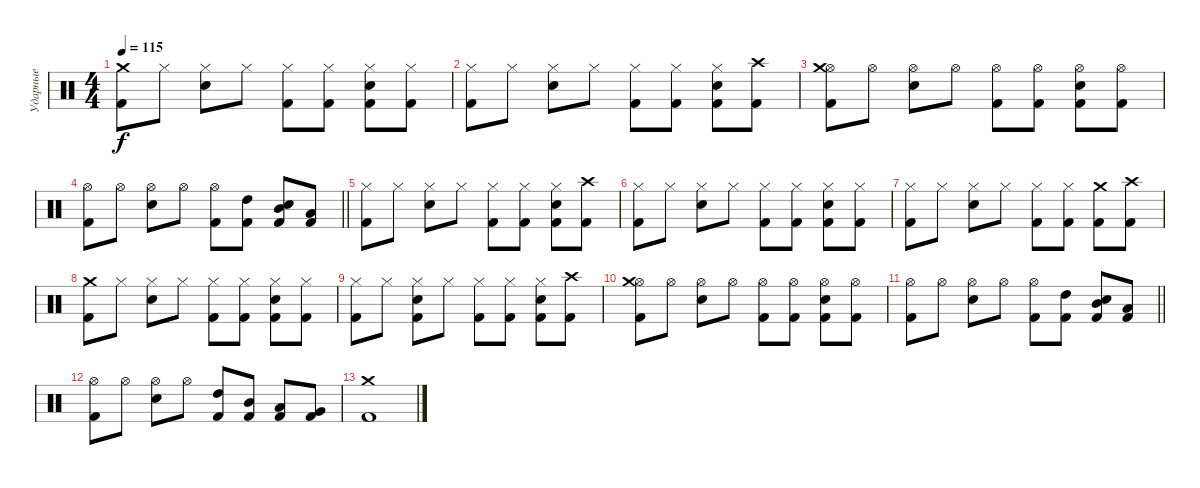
\track ("Ударные" "Ударные") {instrument percussion}
\staff {score}
\articulation defaults
\ts (4 4)
\tempo 115
\clef neutral
\ks c
("Kick (hit) 2" "Crash medium (hit)").8{dy f} "Hi-Hat (closed)".8 ("Snare (hit) 2" "Hi-Hat (closed)").8 "Hi-Hat (closed)".8 ("Kick (hit) 2" "Hi-Hat (closed)").8 ("Kick (hit) 2" "Hi-Hat (closed)").8 ("Kick (hit) 2" "Snare (hit) 2" "Hi-Hat (closed)").8 ("Kick (hit) 2" "Hi-Hat (closed)").8 |
("Kick (hit) 2" "Hi-Hat (closed)").8 "Hi-Hat (closed)".8 ("Snare (hit) 2" "Hi-Hat (closed)").8 "Hi-Hat (closed)".8 ("Kick (hit) 2" "Hi-Hat (closed)").8 ("Kick (hit) 2" "Hi-Hat (closed)").8 ("Kick (hit) 2" "Snare (hit) 2" "Hi-Hat (closed)").8 ("Kick (hit) 2" "Crash high (hit)").8 |
("Kick (hit) 2" "Hi-Hat (open)" "Crash medium (hit)").8 "Hi-Hat (open)".8 ("Snare (hit) 2" "Hi-Hat (open)").8 "Hi-Hat (open)".8 ("Kick (hit) 2" "Hi-Hat (open)").8 ("Kick (hit) 2" "Hi-Hat (open)").8 ("Kick (hit) 2" "Snare (hit) 2" "Hi-Hat (open)").8 ("Kick (hit) 2" "Hi-Hat (open)").8 |
\barLineRight lightlight
("Kick (hit) 2" "Hi-Hat (open)").8 "Hi-Hat (open)".8 ("Snare (hit) 2" "Hi-Hat (open)").8 "Hi-Hat (open)".8 ("Kick (hit) 2" "Hi-Hat (open)").8 ("Kick (hit) 2" "High Tom (hit)").8 ("Kick (hit) 2" "Snare (hit) 2" "Mid Tom (hit)").8 ("Kick (hit) 2" "Low Tom (hit)").8 |
("Kick (hit) 2" "Hi-Hat (closed)").8 "Hi-Hat (closed)".8 ("Snare (hit) 2" "Hi-Hat (closed)").8 "Hi-Hat (closed)".8 ("Kick (hit) 2" "Hi-Hat (closed)").8 ("Kick (hit) 2" "Hi-Hat (closed)").8 ("Kick (hit) 2" "Snare (hit) 2" "Hi-Hat (closed)").8 ("Kick (hit) 2" "Crash high (hit)").8 |
("Kick (hit) 2" "Hi-Hat (closed)").8 "Hi-Hat (closed)".8 ("Snare (hit) 2" "Hi-Hat (closed)").8 "Hi-Hat (closed)".8 ("Kick (hit) 2" "Hi-Hat (closed)").8 ("Kick (hit) 2" "Hi-Hat (closed)").8 ("Kick (hit) 2" "Snare (hit) 2" "Hi-Hat (closed)").8 ("Kick (hit) 2" "Hi-Hat (closed)").8 |
("Kick (hit) 2" "Hi-Hat (closed)").8 "Hi-Hat (closed)".8 ("Snare (hit) 2" "Hi-Hat (closed)").8 "Hi-Hat (closed)".8 ("Kick (hit) 2" "Hi-Hat (closed)").8 ("Kick (hit) 2" "Hi-Hat (closed)").8 ("Kick (hit) 2" "Crash medium (hit)").8 ("Kick (hit) 2" "Crash high (hit)").8 |
("Kick (hit) 2" "Crash medium (hit)").8 "Hi-Hat (closed)".8 ("Snare (hit) 2" "Hi-Hat (closed)").8 "Hi-Hat (closed)".8 ("Kick (hit) 2" "Hi-Hat (closed)").8 ("Kick (hit) 2" "Hi-Hat (closed)").8 ("Kick (hit) 2" "Snare (hit) 2" "Hi-Hat (closed)").8 ("Kick (hit) 2" "Hi-Hat (closed)").8 |
("Kick (hit) 2" "Hi-Hat (closed)").8 "Hi-Hat (closed)".8 ("Kick (hit) 2" "Snare (hit) 2" "Hi-Hat (closed)").8 "Hi-Hat (closed)".8 ("Kick (hit) 2" "Hi-Hat (closed)").8 ("Kick (hit) 2" "Hi-Hat (closed)").8 ("Kick (hit) 2" "Snare (hit) 2" "Hi-Hat (closed)").8 ("Kick (hit) 2" "Crash high (hit)").8 |
("Kick (hit) 2" "Hi-Hat (open)" "Crash medium (hit)").8 "Hi-Hat (open)".8 ("Snare (hit) 2" "Hi-Hat (open)").8 "Hi-Hat (open)".8 ("Kick (hit) 2" "Hi-Hat (open)").8 ("Kick (hit) 2" "Hi-Hat (open)").8 ("Kick (hit) 2" "Snare (hit) 2" "Hi-Hat (open)").8 ("Kick (hit) 2" "Hi-Hat (open)").8 |
\barLineRight lightlight
("Kick (hit) 2" "Hi-Hat (open)").8 "Hi-Hat (open)".8 ("Snare (hit) 2" "Hi-Hat (open)").8 "Hi-Hat (open)".8 ("Kick (hit) 2" "Hi-Hat (open)").8 ("Kick (hit) 2" "High Tom (hit)").8 ("Kick (hit) 2" "Snare (hit) 2" "Mid Tom (hit)").8 ("Kick (hit) 2" "Low Tom (hit)").8 |
("Kick (hit) 2" "Hi-Hat (open)").8 "Hi-Hat (open)".8 ("Snare (hit) 2" "Hi-Hat (open)").8 "Hi-Hat (open)".8 ("Kick (hit) 2" "High Tom (hit)").8 ("Kick (hit) 2" "Mid Tom (hit)").8 ("Kick (hit) 2" "Low Tom (hit)").8 ("Kick (hit) 2" "Very Low Tom (hit)").8 |
("Kick (hit) 2" "Crash medium (hit)").1
